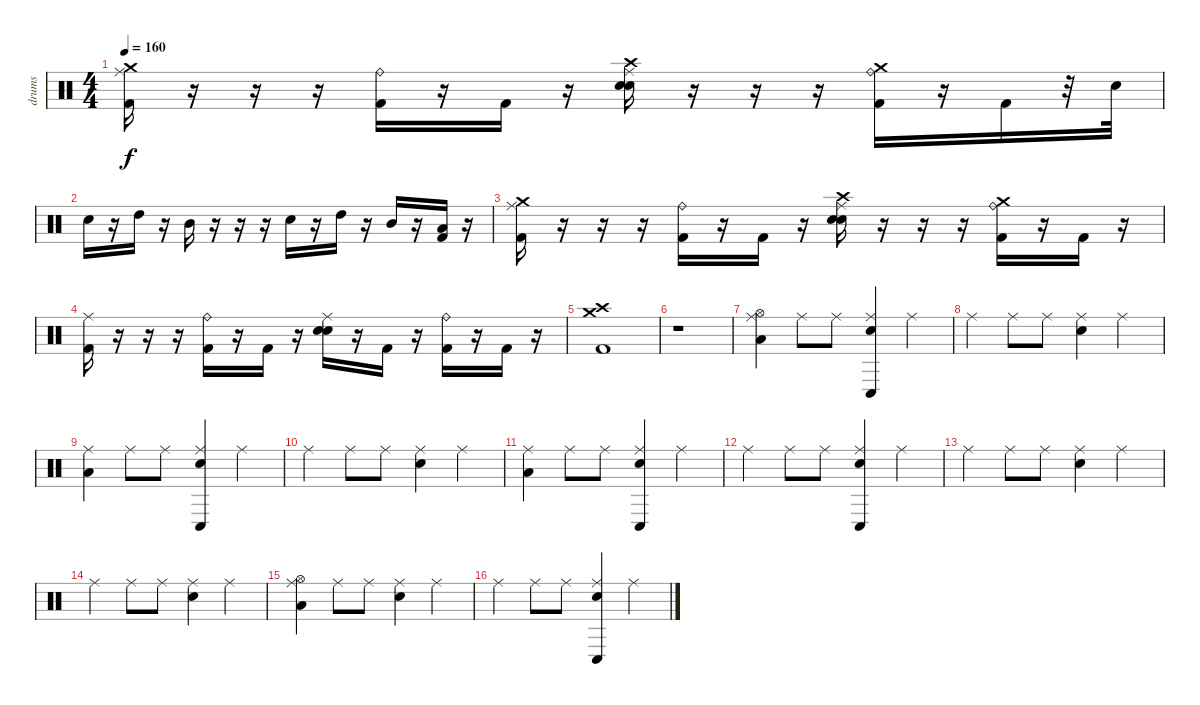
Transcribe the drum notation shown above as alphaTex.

\track ("drums" "drums") {instrument percussion}
\staff {score}
\articulation defaults
\ts (4 4)
\tempo 160
\clef neutral
\ks c
("Crash medium (hit)" "Ride (middle)" "Kick (hit) 2").16{dy f} r.16 r.16 r.16 ("Ride (bell)" "Kick (hit) 2").16 r.16 "Kick (hit) 2".16 r.16 ("Crash high (hit)" "Ride (middle)" "Electric Snare (hit)" "Snare (hit) 2").16 r.16 r.16 r.16 ("Crash medium (hit)" "Ride (bell)" "Kick (hit) 2").16 r.16 "Kick (hit) 2".16 r.32 "Electric Snare (hit)".32 |
"Electric Snare (hit)".16 r.16 "High Tom (hit)".16 r.16 "Mid Tom (hit)".16 r.16 r.16 r.16 "Electric Snare (hit)".16 r.16 "High Tom (hit)".16 r.16 "Mid Tom (hit)".16 r.16 ("Low Tom (hit)" "Kick (hit) 2").16 r.16 |
("Crash medium (hit)" "Ride (middle)" "Kick (hit) 2").16 r.16 r.16 r.16 ("Ride (bell)" "Kick (hit) 2").16 r.16 "Kick (hit) 2".16 r.16 ("Crash high (hit)" "Ride (middle)" "Electric Snare (hit)" "Snare (hit) 2").16 r.16 r.16 r.16 ("Crash medium (hit)" "Ride (bell)" "Kick (hit) 2").16 r.16 "Kick (hit) 2".16 r.16 |
("Ride (middle)" "Kick (hit) 2").16 r.16 r.16 r.16 ("Ride (bell)" "Kick (hit) 2").16 r.16 "Kick (hit) 2".16 r.16 ("Ride (middle)" "Electric Snare (hit)" "Snare (hit) 2").16 r.16 "Kick (hit) 2".16 r.16 ("Ride (bell)" "Kick (hit) 2").16 r.16 "Kick (hit) 2".16 r.16 |
("Crash medium (hit)" "Crash high (hit)" "Kick (hit) 2").1 |
r.1 |
("Ride (middle)" "Hi-Hat (open)" "Low Tom (hit)").4 "Ride (middle)".8 "Ride (middle)".8 ("Ride (middle)" "Conga low (hit)" "Snare (hit) 2").4 "Ride (middle)".4 |
"Ride (middle)".4 "Ride (middle)".8 "Ride (middle)".8 ("Ride (middle)" "Snare (hit) 2").4 "Ride (middle)".4 |
("Ride (middle)" "Low Tom (hit)").4 "Ride (middle)".8 "Ride (middle)".8 ("Ride (middle)" "Conga low (hit)" "Snare (hit) 2").4 "Ride (middle)".4 |
"Ride (middle)".4 "Ride (middle)".8 "Ride (middle)".8 ("Ride (middle)" "Snare (hit) 2").4 "Ride (middle)".4 |
("Ride (middle)" "Low Tom (hit)").4 "Ride (middle)".8 "Ride (middle)".8 ("Ride (middle)" "Conga low (hit)" "Snare (hit) 2").4 "Ride (middle)".4 |
"Ride (middle)".4 "Ride (middle)".8 "Ride (middle)".8 ("Ride (middle)" "Conga low (hit)" "Snare (hit) 2").4 "Ride (middle)".4 |
"Ride (middle)".4 "Ride (middle)".8 "Ride (middle)".8 ("Ride (middle)" "Snare (hit) 2").4 "Ride (middle)".4 |
"Ride (middle)".4 "Ride (middle)".8 "Ride (middle)".8 ("Ride (middle)" "Snare (hit) 2").4 "Ride (middle)".4 |
("Ride (middle)" "Hi-Hat (open)" "Low Tom (hit)").4 "Ride (middle)".8 "Ride (middle)".8 ("Ride (middle)" "Snare (hit) 2").4 "Ride (middle)".4 |
"Ride (middle)".4 "Ride (middle)".8 "Ride (middle)".8 ("Ride (middle)" "Conga low (hit)" "Snare (hit) 2").4 "Ride (middle)".4
